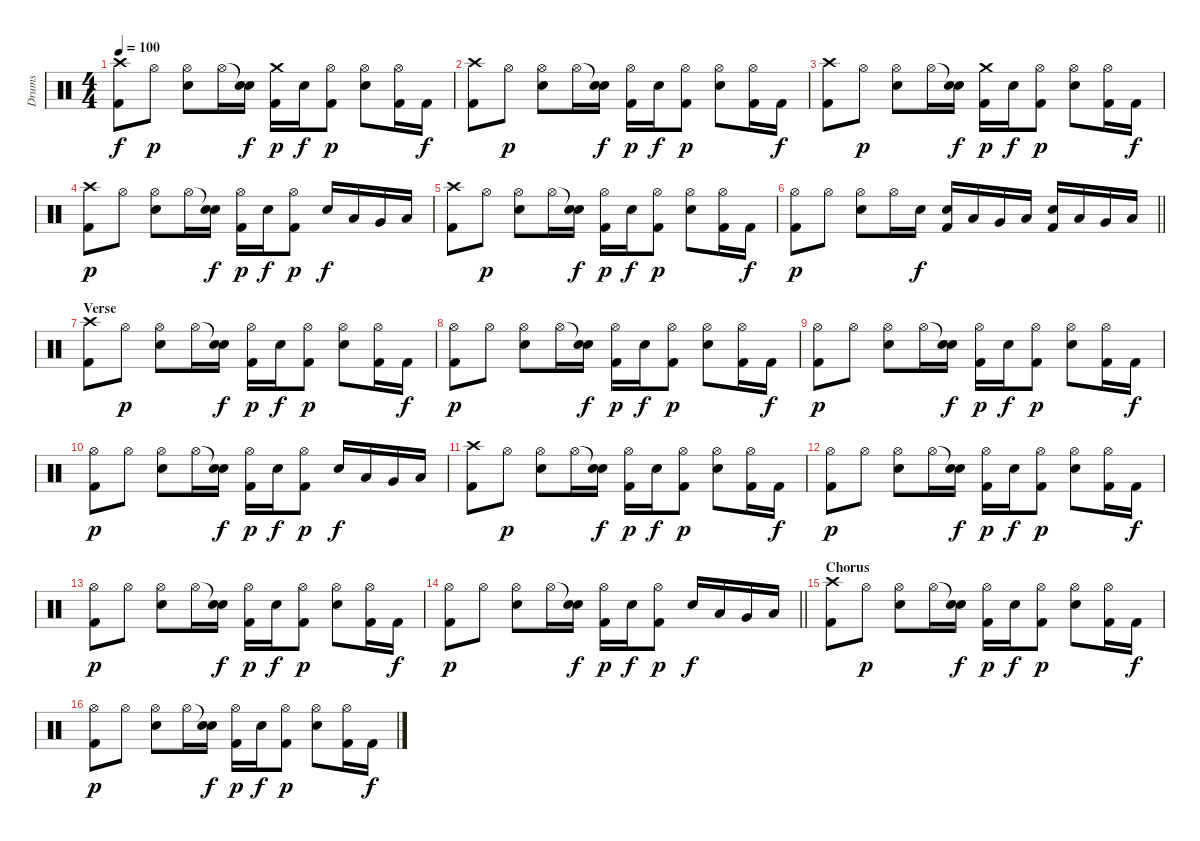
\track ("Drums" "Drums") {instrument percussion}
\staff {score}
\articulation defaults
\ts (4 4)
\tempo 100
\clef neutral
\ks c
("Crash high (hit)" "Kick (hit) 2").8{dy f} "Hi-Hat (open)".8{dy p} ("Hi-Hat (open)" "Electric Snare (hit)").8 "Hi-Hat (open)".16 ("Snare (hit)"{t} "Electric Snare (hit)").16{dy f} ("Crash medium (hit)" "Kick (hit) 2").16{dy p} "Electric Snare (hit)".16{dy f} ("Hi-Hat (open)" "Kick (hit) 2").8{dy p} ("Hi-Hat (open)" "Electric Snare (hit)").8 ("Hi-Hat (open)" "Kick (hit) 2").16 "Kick (hit) 2".16{dy f} |
("Crash high (hit)" "Kick (hit) 2").8 "Hi-Hat (open)".8{dy p} ("Hi-Hat (open)" "Electric Snare (hit)").8 "Hi-Hat (open)".16 ("Snare (hit)"{t} "Electric Snare (hit)").16{dy f} ("Hi-Hat (open)" "Kick (hit) 2").16{dy p} "Electric Snare (hit)".16{dy f} ("Hi-Hat (open)" "Kick (hit) 2").8{dy p} ("Hi-Hat (open)" "Electric Snare (hit)").8 ("Hi-Hat (open)" "Kick (hit) 2").16 "Kick (hit) 2".16{dy f} |
("Crash high (hit)" "Kick (hit) 2").8 "Hi-Hat (open)".8{dy p} ("Hi-Hat (open)" "Electric Snare (hit)").8 "Hi-Hat (open)".16 ("Snare (hit)"{t} "Electric Snare (hit)").16{dy f} ("Crash medium (hit)" "Kick (hit) 2").16{dy p} "Electric Snare (hit)".16{dy f} ("Hi-Hat (open)" "Kick (hit) 2").8{dy p} ("Hi-Hat (open)" "Electric Snare (hit)").8 ("Hi-Hat (open)" "Kick (hit) 2").16 "Kick (hit) 2".16{dy f} |
("Crash high (hit)" "Kick (hit) 2").8{dy p} "Hi-Hat (open)".8 ("Hi-Hat (open)" "Electric Snare (hit)").8 "Hi-Hat (open)".16 ("Snare (hit)"{t} "Electric Snare (hit)").16{dy f} ("Hi-Hat (open)" "Kick (hit) 2").16{dy p} "Electric Snare (hit)".16{dy f} ("Hi-Hat (open)" "Kick (hit) 2").8{dy p} "Electric Snare (hit)".16{dy f} "Low Tom (hit)".16 "Very Low Tom (hit)".16 "Low Floor Tom (hit)".16 |
("Crash high (hit)" "Kick (hit) 2").8 "Hi-Hat (open)".8{dy p} ("Hi-Hat (open)" "Electric Snare (hit)").8 "Hi-Hat (open)".16 ("Snare (hit)"{t} "Electric Snare (hit)").16{dy f} ("Hi-Hat (open)" "Kick (hit) 2").16{dy p} "Electric Snare (hit)".16{dy f} ("Hi-Hat (open)" "Kick (hit) 2").8{dy p} ("Hi-Hat (open)" "Electric Snare (hit)").8 ("Hi-Hat (open)" "Kick (hit) 2").16 "Kick (hit) 2".16{dy f} |
\barLineRight lightlight
("Hi-Hat (open)" "Kick (hit) 2").8{dy p} "Hi-Hat (open)".8 ("Hi-Hat (open)" "Electric Snare (hit)").8 "Hi-Hat (open)".16 "Electric Snare (hit)".16{dy f} ("Electric Snare (hit)" "Kick (hit) 2").16 "Low Tom (hit)".16 "Very Low Tom (hit)".16 "Low Floor Tom (hit)".16 ("Electric Snare (hit)" "Kick (hit) 2").16 "Low Tom (hit)".16 "Very Low Tom (hit)".16 "Low Floor Tom (hit)".16 |
\section ("" "Verse")
("Crash high (hit)" "Kick (hit) 2").8 "Hi-Hat (open)".8{dy p} ("Hi-Hat (open)" "Electric Snare (hit)").8 "Hi-Hat (open)".16 ("Snare (hit)"{t} "Electric Snare (hit)").16{dy f} ("Hi-Hat (open)" "Kick (hit) 2").16{dy p} "Electric Snare (hit)".16{dy f} ("Hi-Hat (open)" "Kick (hit) 2").8{dy p} ("Hi-Hat (open)" "Electric Snare (hit)").8 ("Hi-Hat (open)" "Kick (hit) 2").16 "Kick (hit) 2".16{dy f} |
("Hi-Hat (open)" "Kick (hit) 2").8{dy p} "Hi-Hat (open)".8 ("Hi-Hat (open)" "Electric Snare (hit)").8 "Hi-Hat (open)".16 ("Snare (hit)"{t} "Electric Snare (hit)").16{dy f} ("Hi-Hat (open)" "Kick (hit) 2").16{dy p} "Electric Snare (hit)".16{dy f} ("Hi-Hat (open)" "Kick (hit) 2").8{dy p} ("Hi-Hat (open)" "Electric Snare (hit)").8 ("Hi-Hat (open)" "Kick (hit) 2").16 "Kick (hit) 2".16{dy f} |
("Hi-Hat (open)" "Kick (hit) 2").8{dy p} "Hi-Hat (open)".8 ("Hi-Hat (open)" "Electric Snare (hit)").8 "Hi-Hat (open)".16 ("Snare (hit)"{t} "Electric Snare (hit)").16{dy f} ("Hi-Hat (open)" "Kick (hit) 2").16{dy p} "Electric Snare (hit)".16{dy f} ("Hi-Hat (open)" "Kick (hit) 2").8{dy p} ("Hi-Hat (open)" "Electric Snare (hit)").8 ("Hi-Hat (open)" "Kick (hit) 2").16 "Kick (hit) 2".16{dy f} |
("Hi-Hat (open)" "Kick (hit) 2").8{dy p} "Hi-Hat (open)".8 ("Hi-Hat (open)" "Electric Snare (hit)").8 "Hi-Hat (open)".16 ("Snare (hit)"{t} "Electric Snare (hit)").16{dy f} ("Hi-Hat (open)" "Kick (hit) 2").16{dy p} "Electric Snare (hit)".16{dy f} ("Hi-Hat (open)" "Kick (hit) 2").8{dy p} "Electric Snare (hit)".16{dy f} "Low Tom (hit)".16 "Very Low Tom (hit)".16 "Low Floor Tom (hit)".16 |
("Crash high (hit)" "Kick (hit) 2").8 "Hi-Hat (open)".8{dy p} ("Hi-Hat (open)" "Electric Snare (hit)").8 "Hi-Hat (open)".16 ("Snare (hit)"{t} "Electric Snare (hit)").16{dy f} ("Hi-Hat (open)" "Kick (hit) 2").16{dy p} "Electric Snare (hit)".16{dy f} ("Hi-Hat (open)" "Kick (hit) 2").8{dy p} ("Hi-Hat (open)" "Electric Snare (hit)").8 ("Hi-Hat (open)" "Kick (hit) 2").16 "Kick (hit) 2".16{dy f} |
("Hi-Hat (open)" "Kick (hit) 2").8{dy p} "Hi-Hat (open)".8 ("Hi-Hat (open)" "Electric Snare (hit)").8 "Hi-Hat (open)".16 ("Snare (hit)"{t} "Electric Snare (hit)").16{dy f} ("Hi-Hat (open)" "Kick (hit) 2").16{dy p} "Electric Snare (hit)".16{dy f} ("Hi-Hat (open)" "Kick (hit) 2").8{dy p} ("Hi-Hat (open)" "Electric Snare (hit)").8 ("Hi-Hat (open)" "Kick (hit) 2").16 "Kick (hit) 2".16{dy f} |
("Hi-Hat (open)" "Kick (hit) 2").8{dy p} "Hi-Hat (open)".8 ("Hi-Hat (open)" "Electric Snare (hit)").8 "Hi-Hat (open)".16 ("Snare (hit)"{t} "Electric Snare (hit)").16{dy f} ("Hi-Hat (open)" "Kick (hit) 2").16{dy p} "Electric Snare (hit)".16{dy f} ("Hi-Hat (open)" "Kick (hit) 2").8{dy p} ("Hi-Hat (open)" "Electric Snare (hit)").8 ("Hi-Hat (open)" "Kick (hit) 2").16 "Kick (hit) 2".16{dy f} |
\barLineRight lightlight
("Hi-Hat (open)" "Kick (hit) 2").8{dy p} "Hi-Hat (open)".8 ("Hi-Hat (open)" "Electric Snare (hit)").8 "Hi-Hat (open)".16 ("Snare (hit)"{t} "Electric Snare (hit)").16{dy f} ("Hi-Hat (open)" "Kick (hit) 2").16{dy p} "Electric Snare (hit)".16{dy f} ("Hi-Hat (open)" "Kick (hit) 2").8{dy p} "Electric Snare (hit)".16{dy f} "Low Tom (hit)".16 "Very Low Tom (hit)".16 "Low Floor Tom (hit)".16 |
\section ("" "Chorus")
("Crash high (hit)" "Kick (hit) 2").8 "Hi-Hat (open)".8{dy p} ("Hi-Hat (open)" "Electric Snare (hit)").8 "Hi-Hat (open)".16 ("Snare (hit)"{t} "Electric Snare (hit)").16{dy f} ("Hi-Hat (open)" "Kick (hit) 2").16{dy p} "Electric Snare (hit)".16{dy f} ("Hi-Hat (open)" "Kick (hit) 2").8{dy p} ("Hi-Hat (open)" "Electric Snare (hit)").8 ("Hi-Hat (open)" "Kick (hit) 2").16 "Kick (hit) 2".16{dy f} |
("Hi-Hat (open)" "Kick (hit) 2").8{dy p} "Hi-Hat (open)".8 ("Hi-Hat (open)" "Electric Snare (hit)").8 "Hi-Hat (open)".16 ("Snare (hit)"{t} "Electric Snare (hit)").16{dy f} ("Hi-Hat (open)" "Kick (hit) 2").16{dy p} "Electric Snare (hit)".16{dy f} ("Hi-Hat (open)" "Kick (hit) 2").8{dy p} ("Hi-Hat (open)" "Electric Snare (hit)").8 ("Hi-Hat (open)" "Kick (hit) 2").16 "Kick (hit) 2".16{dy f}
